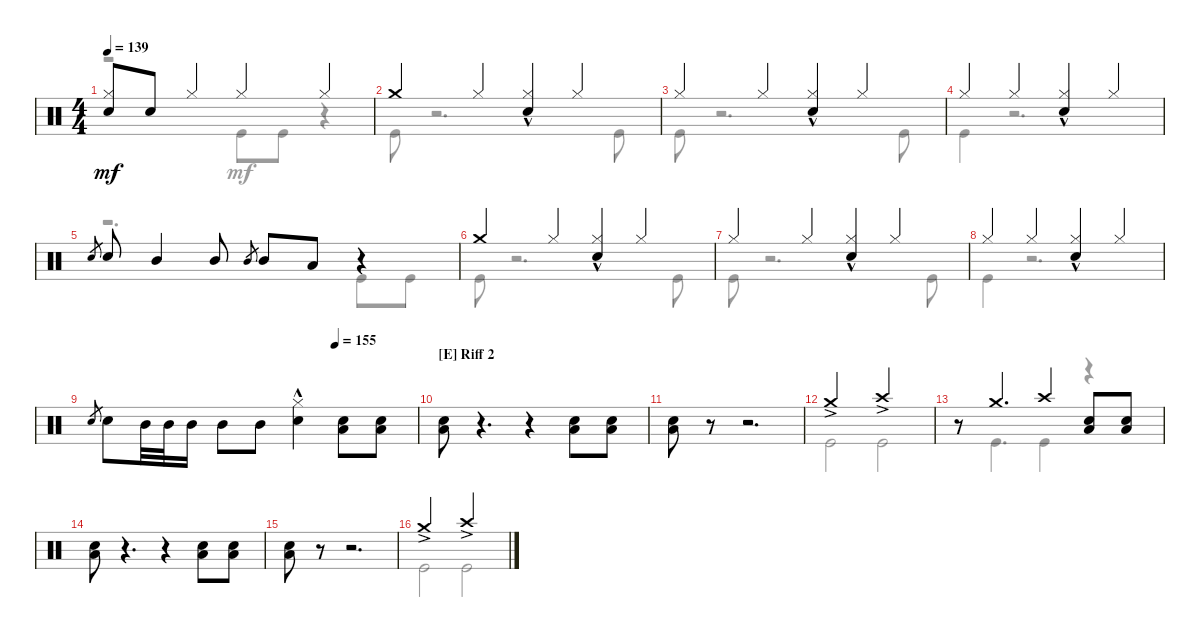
\defaultSystemsLayout 4
\bracketExtendMode groupsimilarinstruments
\singleTrackTrackNamePolicy hidden
\multiTrackTrackNamePolicy hidden
\firstSystemTrackNameOrientation horizontal
\otherSystemsTrackNameOrientation horizontal
\track ("Nicko McBrain" "Drums") {instrument percussion}
\staff {score}
\articulation defaults
\voice
\ts (4 4)
\tempo 139
\clef neutral
\scale
1.02648
\ks c
("Snare (hit) 2" "Hi-Hat (closed)").8{dy mf} "Snare (hit) 2".8 "Hi-Hat (closed)".4 "Hi-Hat (closed)".4 "Hi-Hat (closed)".4 |
\scale
0.973518 "Crash medium (hit)".4 "Hi-Hat (closed)".4 ("Hi-Hat (closed)" "Snare (hit) 2"{hac}).4 "Hi-Hat (closed)".4 |
\scale
1.02648 "Hi-Hat (closed)".4 "Hi-Hat (closed)".4 ("Hi-Hat (closed)" "Snare (hit) 2"{hac}).4 "Hi-Hat (closed)".4 |
\scale
0.973518 "Hi-Hat (closed)".4 "Hi-Hat (closed)".4 ("Hi-Hat (closed)" "Snare (hit) 2"{hac}).4 "Hi-Hat (closed)".4 |
\scale
1.02648 "Snare (hit) 2".8{gr} "Snare (hit) 2".8 "Mid Tom (hit)".4 "Mid Tom (hit)".8 "Mid Tom (hit)".8{gr} "Mid Tom (hit)".8 "Low Tom (hit)".8 r.4 |
\scale
0.973518 "Crash medium (hit)".4 "Hi-Hat (closed)".4 ("Hi-Hat (closed)" "Snare (hit) 2"{hac}).4 "Hi-Hat (closed)".4 |
\scale
1.02648 "Hi-Hat (closed)".4 "Hi-Hat (closed)".4 ("Hi-Hat (closed)" "Snare (hit) 2"{hac}).4 "Hi-Hat (closed)".4 |
\scale
0.973518 "Hi-Hat (closed)".4 "Hi-Hat (closed)".4 ("Hi-Hat (closed)" "Snare (hit) 2"{hac}).4 "Hi-Hat (closed)".4 |
\tempo (155 0.75)
\scale
1.02648 "Snare (hit) 2".8{gr} "Snare (hit) 2".8 "Mid Tom (hit)".32 "Mid Tom (hit)".32 "Mid Tom (hit)".16 "Mid Tom (hit)".8 "Mid Tom (hit)".8 ("Snare (hit) 2"{hac} "Hi-Hat (closed)").4 ("Snare (hit) 2" "Low Tom (hit)").8 ("Snare (hit) 2" "Low Tom (hit)").8 |
\section ("E" "Riff 2")
\scale
0.973518 ("Snare (hit) 2" "Low Tom (hit)").8 r.4{d} r.4 ("Snare (hit) 2" "Low Tom (hit)").8 ("Snare (hit) 2" "Low Tom (hit)").8 |
\scale
1.02648 ("Snare (hit) 2" "Low Tom (hit)").8 r.8 r.2{d} |
\scale
0.973518 "Crash medium (hit)"{ac}.2 "Crash high (hit)"{ac}.2 |
\scale
1.02648 r.8 "Crash medium (hit)".4{d} "Crash high (hit)".4 ("Snare (hit) 2" "Low Tom (hit)").8 ("Snare (hit) 2" "Low Tom (hit)").8 |
\scale
0.973518 ("Snare (hit) 2" "Low Tom (hit)").8 r.4{d} r.4 ("Snare (hit) 2" "Low Tom (hit)").8 ("Snare (hit) 2" "Low Tom (hit)").8 |
\scale
1.02648 ("Snare (hit) 2" "Low Tom (hit)").8 r.8 r.2{d} |
\scale
0.973518 "Crash medium (hit)"{ac}.2 "Crash high (hit)"{ac}.2
\voice
\clef neutral
\ottava regular
\simile none
\scale
1.02648
\ks c
r.2{dy mf} "Kick (hit)".8 "Kick (hit)".8 r.4 |
\scale
0.973518 "Kick (hit)".8 r.2{d} "Kick (hit)".8 |
\scale
1.02648 "Kick (hit)".8 r.2{d} "Kick (hit)".8 |
\scale
0.973518 "Kick (hit)".4 r.2{d} |
\scale
1.02648 r.2{d} "Kick (hit)".8 "Kick (hit)".8 |
\scale
0.973518 "Kick (hit)".8 r.2{d} "Kick (hit)".8 |
\scale
1.02648 "Kick (hit)".8 r.2{d} "Kick (hit)".8 |
\scale
0.973518 "Kick (hit)".4 r.2{d} |
\scale
1.02648 |
\scale
0.973518 |
\scale
1.02648 |
\scale
0.973518 "Kick (hit)".2 "Kick (hit)".2 |
\scale
1.02648 r.8 "Kick (hit)".4{d} "Kick (hit)".4 r.4 |
\scale
0.973518 |
\scale
1.02648 |
\scale
0.973518 "Kick (hit)".2 "Kick (hit)".2
